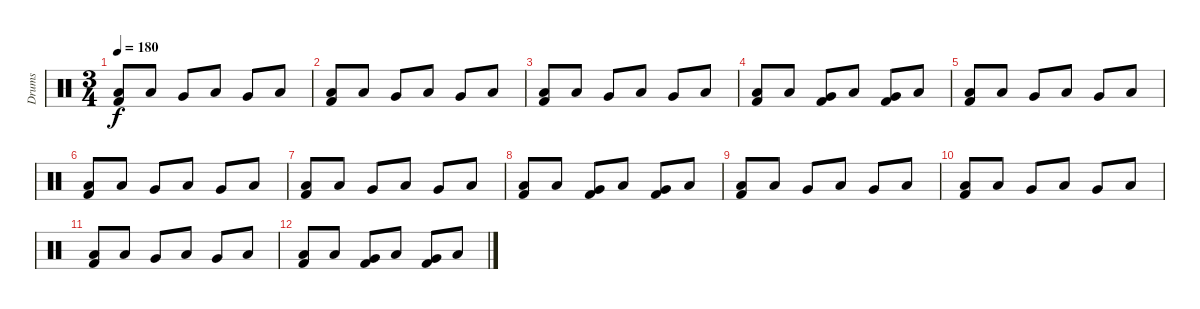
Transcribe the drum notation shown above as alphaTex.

\track ("Drums" "Drums") {instrument percussion}
\staff {score}
\articulation defaults
\ts (3 4)
\tempo 180
\clef neutral
\ks c
("Low Tom (hit)" "Kick (hit) 2").8{dy f volume 16} "Low Floor Tom (hit)".8 "Very Low Tom (hit)".8 "Low Tom (hit)".8 "Very Low Tom (hit)".8 "Low Tom (hit)".8 |
("Low Tom (hit)" "Kick (hit) 2").8 "Low Floor Tom (hit)".8 "Very Low Tom (hit)".8 "Low Tom (hit)".8 "Very Low Tom (hit)".8 "Low Tom (hit)".8 |
("Low Tom (hit)" "Kick (hit) 2").8 "Low Floor Tom (hit)".8 "Very Low Tom (hit)".8 "Low Tom (hit)".8 "Very Low Tom (hit)".8 "Low Tom (hit)".8 |
("Low Tom (hit)" "Kick (hit) 2").8 "Low Floor Tom (hit)".8 ("Very Low Tom (hit)" "Kick (hit) 2").8 "Low Tom (hit)".8 ("Very Low Tom (hit)" "Kick (hit) 2").8 "Low Tom (hit)".8 |
("Low Tom (hit)" "Kick (hit) 2").8 "Low Floor Tom (hit)".8 "Very Low Tom (hit)".8 "Low Tom (hit)".8 "Very Low Tom (hit)".8 "Low Tom (hit)".8 |
("Low Tom (hit)" "Kick (hit) 2").8 "Low Floor Tom (hit)".8 "Very Low Tom (hit)".8 "Low Tom (hit)".8 "Very Low Tom (hit)".8 "Low Tom (hit)".8 |
("Low Tom (hit)" "Kick (hit) 2").8 "Low Floor Tom (hit)".8 "Very Low Tom (hit)".8 "Low Tom (hit)".8 "Very Low Tom (hit)".8 "Low Tom (hit)".8 |
("Low Tom (hit)" "Kick (hit) 2").8 "Low Floor Tom (hit)".8 ("Very Low Tom (hit)" "Kick (hit) 2").8 "Low Tom (hit)".8 ("Very Low Tom (hit)" "Kick (hit) 2").8 "Low Tom (hit)".8 |
("Low Tom (hit)" "Kick (hit) 2").8{volume 0} "Low Floor Tom (hit)".8 "Very Low Tom (hit)".8 "Low Tom (hit)".8 "Very Low Tom (hit)".8 "Low Tom (hit)".8 |
("Low Tom (hit)" "Kick (hit) 2").8 "Low Floor Tom (hit)".8 "Very Low Tom (hit)".8 "Low Tom (hit)".8 "Very Low Tom (hit)".8 "Low Tom (hit)".8 |
("Low Tom (hit)" "Kick (hit) 2").8 "Low Floor Tom (hit)".8 "Very Low Tom (hit)".8 "Low Tom (hit)".8 "Very Low Tom (hit)".8 "Low Tom (hit)".8 |
("Low Tom (hit)" "Kick (hit) 2").8 "Low Floor Tom (hit)".8 ("Very Low Tom (hit)" "Kick (hit) 2").8 "Low Tom (hit)".8 ("Very Low Tom (hit)" "Kick (hit) 2").8 "Low Tom (hit)".8
